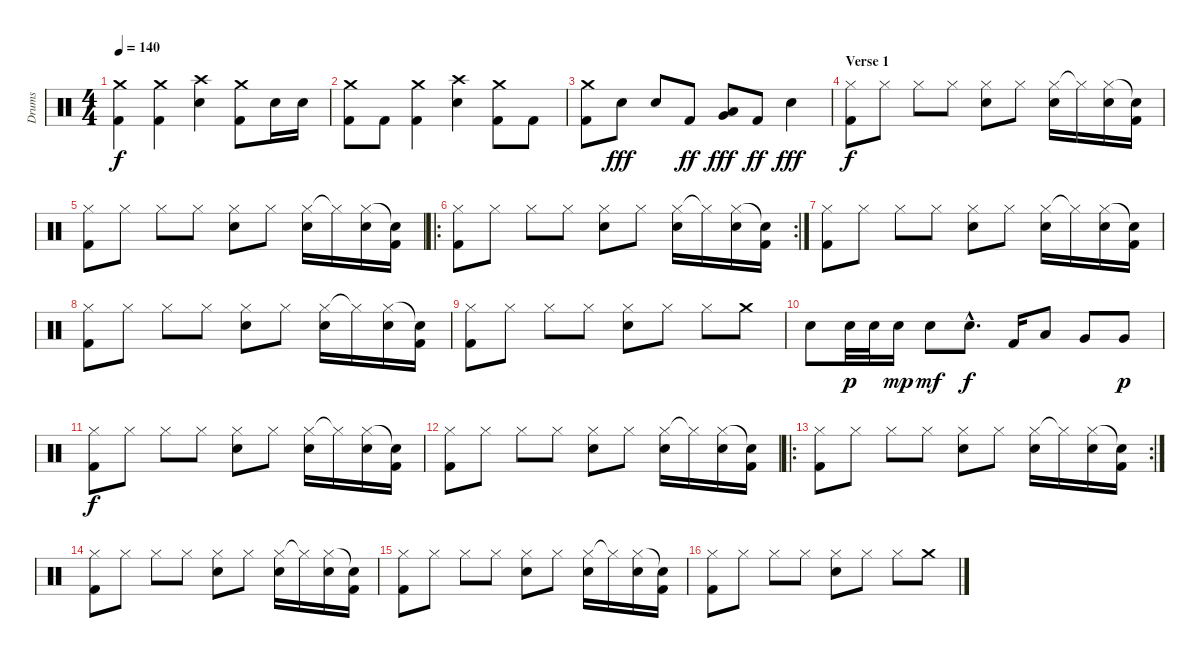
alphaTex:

\track ("Drums" "Drums") {instrument percussion}
\staff {score}
\articulation defaults
\ts (4 4)
\tempo 140
\clef neutral
\ks c
("Crash medium (hit)" "Kick (hit) 2").4{dy f} ("Crash medium (hit)" "Kick (hit) 2").4 ("Crash high (hit)" "Electric Snare (hit)").4 ("Crash medium (hit)" "Kick (hit) 2").8 "Electric Snare (hit)".16 "Electric Snare (hit)".16 |
("Crash medium (hit)" "Kick (hit) 2").8 "Kick (hit) 2".8 ("Crash medium (hit)" "Kick (hit) 2").4 ("Crash high (hit)" "Electric Snare (hit)").4 ("Crash medium (hit)" "Kick (hit) 2").8 "Kick (hit) 2".8 |
("Crash medium (hit)" "Kick (hit) 2").8 "Electric Snare (hit)".8{dy fff} "Electric Snare (hit)".8 "Kick (hit) 2".8{dy ff} ("Very Low Tom (hit)" "Low Tom (hit)").8{dy fff} "Kick (hit) 2".8{dy ff} "Electric Snare (hit)".4{dy fff} |
\section ("" "Verse 1")
("Hi-Hat (closed)" "Kick (hit) 2").8{dy f} "Hi-Hat (closed)".8 "Hi-Hat (closed)".8 "Hi-Hat (closed)".8 ("Hi-Hat (closed)" "Electric Snare (hit)").8 "Hi-Hat (closed)".8 ("Hi-Hat (closed)" "Electric Snare (hit)").16 "Hi-Hat (closed)"{t}.16 ("Hi-Hat (closed)" "Electric Snare (hit)").16 ("Snare (hit)"{t} "Kick (hit) 2").16 |
("Hi-Hat (closed)" "Kick (hit) 2").8 "Hi-Hat (closed)".8 "Hi-Hat (closed)".8 "Hi-Hat (closed)".8 ("Hi-Hat (closed)" "Electric Snare (hit)").8 "Hi-Hat (closed)".8 ("Hi-Hat (closed)" "Electric Snare (hit)").16 "Hi-Hat (closed)"{t}.16 ("Hi-Hat (closed)" "Electric Snare (hit)").16 ("Snare (hit)"{t} "Kick (hit) 2").16 |
\ro
\rc 2
("Hi-Hat (closed)" "Kick (hit) 2").8 "Hi-Hat (closed)".8 "Hi-Hat (closed)".8 "Hi-Hat (closed)".8 ("Hi-Hat (closed)" "Electric Snare (hit)").8 "Hi-Hat (closed)".8 ("Hi-Hat (closed)" "Electric Snare (hit)").16 "Hi-Hat (closed)"{t}.16 ("Hi-Hat (closed)" "Electric Snare (hit)").16 ("Snare (hit)"{t} "Kick (hit) 2").16 |
("Hi-Hat (closed)" "Kick (hit) 2").8 "Hi-Hat (closed)".8 "Hi-Hat (closed)".8 "Hi-Hat (closed)".8 ("Hi-Hat (closed)" "Electric Snare (hit)").8 "Hi-Hat (closed)".8 ("Hi-Hat (closed)" "Electric Snare (hit)").16 "Hi-Hat (closed)"{t}.16 ("Hi-Hat (closed)" "Electric Snare (hit)").16 ("Snare (hit)"{t} "Kick (hit) 2").16 |
("Hi-Hat (closed)" "Kick (hit) 2").8 "Hi-Hat (closed)".8 "Hi-Hat (closed)".8 "Hi-Hat (closed)".8 ("Hi-Hat (closed)" "Electric Snare (hit)").8 "Hi-Hat (closed)".8 ("Hi-Hat (closed)" "Electric Snare (hit)").16 "Hi-Hat (closed)"{t}.16 ("Hi-Hat (closed)" "Electric Snare (hit)").16 ("Snare (hit)"{t} "Kick (hit) 2").16 |
("Hi-Hat (closed)" "Kick (hit) 2").8 "Hi-Hat (closed)".8 "Hi-Hat (closed)".8 "Hi-Hat (closed)".8 ("Hi-Hat (closed)" "Electric Snare (hit)").8 "Hi-Hat (closed)".8 "Hi-Hat (closed)".8 "Crash medium (hit)".8 |
"Electric Snare (hit)".8 "Electric Snare (hit)".32{dy p} "Electric Snare (hit)".32 "Electric Snare (hit)".16{dy mp} "Electric Snare (hit)".8{dy mf} "Electric Snare (hit)"{hac}.8{d dy f} "Kick (hit) 2".16 "Low Tom (hit)".8 "Very Low Tom (hit)".8 "Very Low Tom (hit)".8{dy p} |
("Hi-Hat (closed)" "Kick (hit) 2").8{dy f} "Hi-Hat (closed)".8 "Hi-Hat (closed)".8 "Hi-Hat (closed)".8 ("Hi-Hat (closed)" "Electric Snare (hit)").8 "Hi-Hat (closed)".8 ("Hi-Hat (closed)" "Electric Snare (hit)").16 "Hi-Hat (closed)"{t}.16 ("Hi-Hat (closed)" "Electric Snare (hit)").16 ("Snare (hit)"{t} "Kick (hit) 2").16 |
("Hi-Hat (closed)" "Kick (hit) 2").8 "Hi-Hat (closed)".8 "Hi-Hat (closed)".8 "Hi-Hat (closed)".8 ("Hi-Hat (closed)" "Electric Snare (hit)").8 "Hi-Hat (closed)".8 ("Hi-Hat (closed)" "Electric Snare (hit)").16 "Hi-Hat (closed)"{t}.16 ("Hi-Hat (closed)" "Electric Snare (hit)").16 ("Snare (hit)"{t} "Kick (hit) 2").16 |
\ro
\rc 2
("Hi-Hat (closed)" "Kick (hit) 2").8 "Hi-Hat (closed)".8 "Hi-Hat (closed)".8 "Hi-Hat (closed)".8 ("Hi-Hat (closed)" "Electric Snare (hit)").8 "Hi-Hat (closed)".8 ("Hi-Hat (closed)" "Electric Snare (hit)").16 "Hi-Hat (closed)"{t}.16 ("Hi-Hat (closed)" "Electric Snare (hit)").16 ("Snare (hit)"{t} "Kick (hit) 2").16 |
("Hi-Hat (closed)" "Kick (hit) 2").8 "Hi-Hat (closed)".8 "Hi-Hat (closed)".8 "Hi-Hat (closed)".8 ("Hi-Hat (closed)" "Electric Snare (hit)").8 "Hi-Hat (closed)".8 ("Hi-Hat (closed)" "Electric Snare (hit)").16 "Hi-Hat (closed)"{t}.16 ("Hi-Hat (closed)" "Electric Snare (hit)").16 ("Snare (hit)"{t} "Kick (hit) 2").16 |
("Hi-Hat (closed)" "Kick (hit) 2").8 "Hi-Hat (closed)".8 "Hi-Hat (closed)".8 "Hi-Hat (closed)".8 ("Hi-Hat (closed)" "Electric Snare (hit)").8 "Hi-Hat (closed)".8 ("Hi-Hat (closed)" "Electric Snare (hit)").16 "Hi-Hat (closed)"{t}.16 ("Hi-Hat (closed)" "Electric Snare (hit)").16 ("Snare (hit)"{t} "Kick (hit) 2").16 |
("Hi-Hat (closed)" "Kick (hit) 2").8 "Hi-Hat (closed)".8 "Hi-Hat (closed)".8 "Hi-Hat (closed)".8 ("Hi-Hat (closed)" "Electric Snare (hit)").8 "Hi-Hat (closed)".8 "Hi-Hat (closed)".8 "Crash medium (hit)".8
